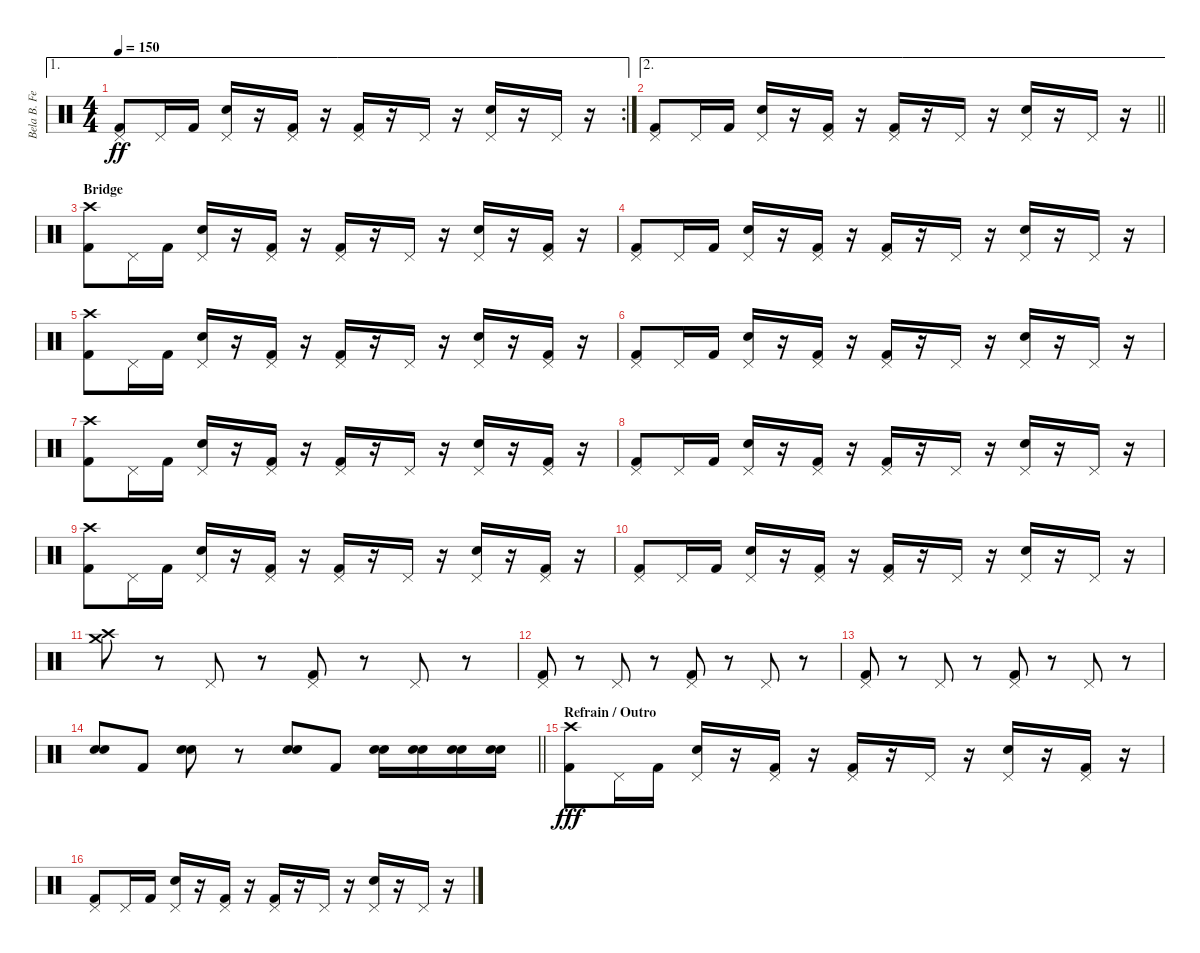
\track ("Bela B. Felsenheimer" "Bela B. Fe") {instrument percussion}
\staff {score}
\articulation defaults
\ae 1
\rc 2
\ts (4 4)
\tempo 150
\clef neutral
\ks c
("Pedal Hi-Hat (hit)" "Kick (hit) 2").8{dy ff} "Pedal Hi-Hat (hit)".16 "Kick (hit) 2".16 ("Pedal Hi-Hat (hit)" "Snare (hit) 2").16 r.16 ("Pedal Hi-Hat (hit)" "Kick (hit) 2").16 r.16 ("Pedal Hi-Hat (hit)" "Kick (hit) 2").16 r.16 "Pedal Hi-Hat (hit)".16 r.16 ("Pedal Hi-Hat (hit)" "Snare (hit) 2").16 r.16 "Pedal Hi-Hat (hit)".16 r.16 |
\ae 2
\barLineRight lightlight
("Pedal Hi-Hat (hit)" "Kick (hit) 2").8 "Pedal Hi-Hat (hit)".16 "Kick (hit) 2".16 ("Pedal Hi-Hat (hit)" "Snare (hit) 2").16 r.16 ("Pedal Hi-Hat (hit)" "Kick (hit) 2").16 r.16 ("Pedal Hi-Hat (hit)" "Kick (hit) 2").16 r.16 "Pedal Hi-Hat (hit)".16 r.16 ("Pedal Hi-Hat (hit)" "Snare (hit) 2").16 r.16 "Pedal Hi-Hat (hit)".16 r.16 |
\section ("" "Bridge")
("Crash high (hit)" "Kick (hit) 2").8 "Pedal Hi-Hat (hit)".16 "Kick (hit) 2".16 ("Pedal Hi-Hat (hit)" "Snare (hit) 2").16 r.16 ("Pedal Hi-Hat (hit)" "Kick (hit) 2").16 r.16 ("Pedal Hi-Hat (hit)" "Kick (hit) 2").16 r.16 "Pedal Hi-Hat (hit)".16 r.16 ("Pedal Hi-Hat (hit)" "Snare (hit) 2").16 r.16 ("Pedal Hi-Hat (hit)" "Kick (hit) 2").16 r.16 |
("Pedal Hi-Hat (hit)" "Kick (hit) 2").8 "Pedal Hi-Hat (hit)".16 "Kick (hit) 2".16 ("Pedal Hi-Hat (hit)" "Snare (hit) 2").16 r.16 ("Pedal Hi-Hat (hit)" "Kick (hit) 2").16 r.16 ("Pedal Hi-Hat (hit)" "Kick (hit) 2").16 r.16 "Pedal Hi-Hat (hit)".16 r.16 ("Pedal Hi-Hat (hit)" "Snare (hit) 2").16 r.16 "Pedal Hi-Hat (hit)".16 r.16 |
("Crash high (hit)" "Kick (hit) 2").8 "Pedal Hi-Hat (hit)".16 "Kick (hit) 2".16 ("Pedal Hi-Hat (hit)" "Snare (hit) 2").16 r.16 ("Pedal Hi-Hat (hit)" "Kick (hit) 2").16 r.16 ("Pedal Hi-Hat (hit)" "Kick (hit) 2").16 r.16 "Pedal Hi-Hat (hit)".16 r.16 ("Pedal Hi-Hat (hit)" "Snare (hit) 2").16 r.16 ("Pedal Hi-Hat (hit)" "Kick (hit) 2").16 r.16 |
("Pedal Hi-Hat (hit)" "Kick (hit) 2").8 "Pedal Hi-Hat (hit)".16 "Kick (hit) 2".16 ("Pedal Hi-Hat (hit)" "Snare (hit) 2").16 r.16 ("Pedal Hi-Hat (hit)" "Kick (hit) 2").16 r.16 ("Pedal Hi-Hat (hit)" "Kick (hit) 2").16 r.16 "Pedal Hi-Hat (hit)".16 r.16 ("Pedal Hi-Hat (hit)" "Snare (hit) 2").16 r.16 "Pedal Hi-Hat (hit)".16 r.16 |
("Crash high (hit)" "Kick (hit) 2").8 "Pedal Hi-Hat (hit)".16 "Kick (hit) 2".16 ("Pedal Hi-Hat (hit)" "Snare (hit) 2").16 r.16 ("Pedal Hi-Hat (hit)" "Kick (hit) 2").16 r.16 ("Pedal Hi-Hat (hit)" "Kick (hit) 2").16 r.16 "Pedal Hi-Hat (hit)".16 r.16 ("Pedal Hi-Hat (hit)" "Snare (hit) 2").16 r.16 ("Pedal Hi-Hat (hit)" "Kick (hit) 2").16 r.16 |
("Pedal Hi-Hat (hit)" "Kick (hit) 2").8 "Pedal Hi-Hat (hit)".16 "Kick (hit) 2".16 ("Pedal Hi-Hat (hit)" "Snare (hit) 2").16 r.16 ("Pedal Hi-Hat (hit)" "Kick (hit) 2").16 r.16 ("Pedal Hi-Hat (hit)" "Kick (hit) 2").16 r.16 "Pedal Hi-Hat (hit)".16 r.16 ("Pedal Hi-Hat (hit)" "Snare (hit) 2").16 r.16 "Pedal Hi-Hat (hit)".16 r.16 |
("Crash high (hit)" "Kick (hit) 2").8 "Pedal Hi-Hat (hit)".16 "Kick (hit) 2".16 ("Pedal Hi-Hat (hit)" "Snare (hit) 2").16 r.16 ("Pedal Hi-Hat (hit)" "Kick (hit) 2").16 r.16 ("Pedal Hi-Hat (hit)" "Kick (hit) 2").16 r.16 "Pedal Hi-Hat (hit)".16 r.16 ("Pedal Hi-Hat (hit)" "Snare (hit) 2").16 r.16 ("Pedal Hi-Hat (hit)" "Kick (hit) 2").16 r.16 |
("Pedal Hi-Hat (hit)" "Kick (hit) 2").8 "Pedal Hi-Hat (hit)".16 "Kick (hit) 2".16 ("Pedal Hi-Hat (hit)" "Snare (hit) 2").16 r.16 ("Pedal Hi-Hat (hit)" "Kick (hit) 2").16 r.16 ("Pedal Hi-Hat (hit)" "Kick (hit) 2").16 r.16 "Pedal Hi-Hat (hit)".16 r.16 ("Pedal Hi-Hat (hit)" "Snare (hit) 2").16 r.16 "Pedal Hi-Hat (hit)".16 r.16 |
("Crash high (hit)" "Crash medium (hit)").8 r.8 "Pedal Hi-Hat (hit)".8 r.8 ("Pedal Hi-Hat (hit)" "Kick (hit) 2").8 r.8 "Pedal Hi-Hat (hit)".8 r.8 |
("Pedal Hi-Hat (hit)" "Kick (hit) 2").8 r.8 "Pedal Hi-Hat (hit)".8 r.8 ("Pedal Hi-Hat (hit)" "Kick (hit) 2").8 r.8 "Pedal Hi-Hat (hit)".8 r.8 |
("Pedal Hi-Hat (hit)" "Kick (hit) 2").8 r.8 "Pedal Hi-Hat (hit)".8 r.8 ("Pedal Hi-Hat (hit)" "Kick (hit) 2").8 r.8 "Pedal Hi-Hat (hit)".8 r.8 |
\barLineRight lightlight
("Electric Snare (hit)" "Snare (hit) 2").8 "Kick (hit) 2".8 ("Electric Snare (hit)" "Snare (hit) 2").8 r.8 ("Electric Snare (hit)" "Snare (hit) 2").8 "Kick (hit) 2".8 ("Electric Snare (hit)" "Snare (hit) 2").16 ("Electric Snare (hit)" "Snare (hit) 2").16 ("Electric Snare (hit)" "Snare (hit) 2").16 ("Electric Snare (hit)" "Snare (hit) 2").16 |
\section ("" "Refrain / Outro")
("Crash high (hit)" "Kick (hit) 2").8{dy fff volume 16} "Pedal Hi-Hat (hit)".16 "Kick (hit) 2".16 ("Pedal Hi-Hat (hit)" "Snare (hit) 2").16 r.16 ("Pedal Hi-Hat (hit)" "Kick (hit) 2").16 r.16 ("Pedal Hi-Hat (hit)" "Kick (hit) 2").16 r.16 "Pedal Hi-Hat (hit)".16 r.16 ("Pedal Hi-Hat (hit)" "Snare (hit) 2").16 r.16 ("Pedal Hi-Hat (hit)" "Kick (hit) 2").16 r.16 |
("Pedal Hi-Hat (hit)" "Kick (hit) 2").8 "Pedal Hi-Hat (hit)".16 "Kick (hit) 2".16 ("Pedal Hi-Hat (hit)" "Snare (hit) 2").16 r.16 ("Pedal Hi-Hat (hit)" "Kick (hit) 2").16 r.16 ("Pedal Hi-Hat (hit)" "Kick (hit) 2").16 r.16 "Pedal Hi-Hat (hit)".16 r.16 ("Pedal Hi-Hat (hit)" "Snare (hit) 2").16 r.16 "Pedal Hi-Hat (hit)".16 r.16
